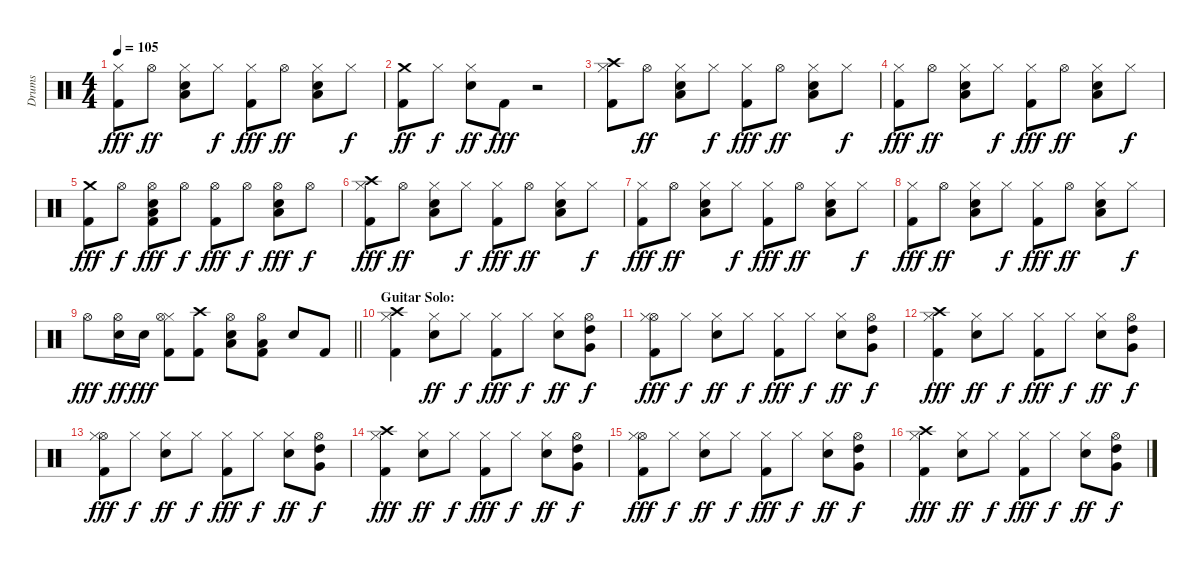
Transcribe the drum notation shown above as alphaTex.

\track ("Drums" "Drums") {instrument percussion}
\staff {score}
\articulation defaults
\ts (4 4)
\tempo 105
\clef neutral
\ks c
("Hi-Hat (closed)" "Kick (hit) 2").8{dy fff} "Hi-Hat (open)".8{dy ff} ("Hi-Hat (closed)" "Low Floor Tom (hit)" "Snare (hit) 2").8 "Hi-Hat (closed)".8{dy f} ("Hi-Hat (closed)" "Kick (hit) 2").8{dy fff} "Hi-Hat (open)".8{dy ff} ("Hi-Hat (closed)" "Low Floor Tom (hit)" "Snare (hit) 2").8 "Hi-Hat (closed)".8{dy f} |
("Crash medium (hit)" "Kick (hit) 2").8{dy ff} "Hi-Hat (closed)".8{dy f} ("Hi-Hat (closed)" "Snare (hit) 2").8{dy ff} "Kick (hit) 2".8{dy fff} r.2 |
("Crash high (hit)" "Hi-Hat (closed)" "Kick (hit) 2").8 "Hi-Hat (open)".8{dy ff} ("Hi-Hat (closed)" "Low Floor Tom (hit)" "Snare (hit) 2").8 "Hi-Hat (closed)".8{dy f} ("Hi-Hat (closed)" "Kick (hit) 2").8{dy fff} "Hi-Hat (open)".8{dy ff} ("Hi-Hat (closed)" "Low Floor Tom (hit)" "Snare (hit) 2").8 "Hi-Hat (closed)".8{dy f} |
("Hi-Hat (closed)" "Kick (hit) 2").8{dy fff} "Hi-Hat (open)".8{dy ff} ("Hi-Hat (closed)" "Low Floor Tom (hit)" "Snare (hit) 2").8 "Hi-Hat (closed)".8{dy f} ("Hi-Hat (closed)" "Kick (hit) 2").8{dy fff} "Hi-Hat (open)".8{dy ff} ("Hi-Hat (closed)" "Low Floor Tom (hit)" "Snare (hit) 2").8 "Hi-Hat (closed)".8{dy f} |
("Crash medium (hit)" "Kick (hit) 2").8{dy fff} "Hi-Hat (open)".8{dy f} ("Hi-Hat (open)" "Low Floor Tom (hit)" "Snare (hit) 2" "Kick (hit) 2").8{dy fff} "Hi-Hat (open)".8{dy f} ("Hi-Hat (open)" "Kick (hit) 2").8{dy fff} "Hi-Hat (open)".8{dy f} ("Hi-Hat (open)" "Low Floor Tom (hit)" "Snare (hit) 2").8{dy fff} "Hi-Hat (open)".8{dy f} |
("Crash high (hit)" "Hi-Hat (closed)" "Kick (hit) 2").8{dy fff} "Hi-Hat (open)".8{dy ff} ("Hi-Hat (closed)" "Low Floor Tom (hit)" "Snare (hit) 2").8 "Hi-Hat (closed)".8{dy f} ("Hi-Hat (closed)" "Kick (hit) 2").8{dy fff} "Hi-Hat (open)".8{dy ff} ("Hi-Hat (closed)" "Low Floor Tom (hit)" "Snare (hit) 2").8 "Hi-Hat (closed)".8{dy f} |
("Hi-Hat (closed)" "Kick (hit) 2").8{dy fff} "Hi-Hat (open)".8{dy ff} ("Hi-Hat (closed)" "Low Floor Tom (hit)" "Snare (hit) 2").8 "Hi-Hat (closed)".8{dy f} ("Hi-Hat (closed)" "Kick (hit) 2").8{dy fff} "Hi-Hat (open)".8{dy ff} ("Hi-Hat (closed)" "Low Floor Tom (hit)" "Snare (hit) 2").8 "Hi-Hat (closed)".8{dy f} |
("Hi-Hat (closed)" "Kick (hit) 2").8{dy fff} "Hi-Hat (open)".8{dy ff} ("Hi-Hat (closed)" "Low Floor Tom (hit)" "Snare (hit) 2").8 "Hi-Hat (closed)".8{dy f} ("Hi-Hat (closed)" "Kick (hit) 2").8{dy fff} "Hi-Hat (open)".8{dy ff} ("Hi-Hat (closed)" "Low Floor Tom (hit)" "Snare (hit) 2").8 "Hi-Hat (closed)".8{dy f} |
\barLineRight lightlight "Hi-Hat (open)".8{dy fff}
("Snare (hit) 2" "Hi-Hat (open)").16{dy ff} "Snare (hit) 2".16{dy fff} ("Hi-Hat (closed)" "Kick (hit) 2" "Hi-Hat (open)").8 ("Crash high (hit)" "Kick (hit) 2").8 ("Hi-Hat (open)" "Low Floor Tom (hit)" "Snare (hit) 2").8 ("Hi-Hat (open)" "Low Floor Tom (hit)" "Kick (hit) 2").8 "Snare (hit) 2".8 "Kick (hit) 2".8 |
\section ("" "Guitar Solo:")
("Crash high (hit)" "Hi-Hat (closed)" "Kick (hit) 2").4 ("Hi-Hat (closed)" "Electric Snare (hit)").8{dy ff} "Hi-Hat (closed)".8{dy f} ("Hi-Hat (closed)" "Kick (hit) 2").8{dy fff} "Hi-Hat (closed)".8{dy f} ("Hi-Hat (closed)" "Electric Snare (hit)").8{dy ff} ("Very Low Tom (hit)" "Hi-Hat (open)" "High Tom (hit)").8{dy f} |
("Hi-Hat (open)" "Hi-Hat (closed)" "Kick (hit) 2").8{dy fff} "Hi-Hat (closed)".8{dy f} ("Hi-Hat (closed)" "Electric Snare (hit)").8{dy ff} "Hi-Hat (closed)".8{dy f} ("Hi-Hat (closed)" "Kick (hit) 2").8{dy fff} "Hi-Hat (closed)".8{dy f} ("Hi-Hat (closed)" "Electric Snare (hit)").8{dy ff} ("Very Low Tom (hit)" "Hi-Hat (open)" "High Tom (hit)").8{dy f} |
("Crash high (hit)" "Hi-Hat (closed)" "Kick (hit) 2").4{dy fff} ("Hi-Hat (closed)" "Electric Snare (hit)").8{dy ff} "Hi-Hat (closed)".8{dy f} ("Hi-Hat (closed)" "Kick (hit) 2").8{dy fff} "Hi-Hat (closed)".8{dy f} ("Hi-Hat (closed)" "Electric Snare (hit)").8{dy ff} ("Very Low Tom (hit)" "Hi-Hat (open)" "High Tom (hit)").8{dy f} |
("Hi-Hat (open)" "Hi-Hat (closed)" "Kick (hit) 2").8{dy fff} "Hi-Hat (closed)".8{dy f} ("Hi-Hat (closed)" "Electric Snare (hit)").8{dy ff} "Hi-Hat (closed)".8{dy f} ("Hi-Hat (closed)" "Kick (hit) 2").8{dy fff} "Hi-Hat (closed)".8{dy f} ("Hi-Hat (closed)" "Electric Snare (hit)").8{dy ff} ("Very Low Tom (hit)" "Hi-Hat (open)" "High Tom (hit)").8{dy f} |
("Crash high (hit)" "Hi-Hat (closed)" "Kick (hit) 2").4{dy fff} ("Hi-Hat (closed)" "Electric Snare (hit)").8{dy ff} "Hi-Hat (closed)".8{dy f} ("Hi-Hat (closed)" "Kick (hit) 2").8{dy fff} "Hi-Hat (closed)".8{dy f} ("Hi-Hat (closed)" "Electric Snare (hit)").8{dy ff} ("Very Low Tom (hit)" "Hi-Hat (open)" "High Tom (hit)").8{dy f} |
("Hi-Hat (open)" "Hi-Hat (closed)" "Kick (hit) 2").8{dy fff} "Hi-Hat (closed)".8{dy f} ("Hi-Hat (closed)" "Electric Snare (hit)").8{dy ff} "Hi-Hat (closed)".8{dy f} ("Hi-Hat (closed)" "Kick (hit) 2").8{dy fff} "Hi-Hat (closed)".8{dy f} ("Hi-Hat (closed)" "Electric Snare (hit)").8{dy ff} ("Very Low Tom (hit)" "Hi-Hat (open)" "High Tom (hit)").8{dy f} |
("Crash high (hit)" "Hi-Hat (closed)" "Kick (hit) 2").4{dy fff} ("Hi-Hat (closed)" "Electric Snare (hit)").8{dy ff} "Hi-Hat (closed)".8{dy f} ("Hi-Hat (closed)" "Kick (hit) 2").8{dy fff} "Hi-Hat (closed)".8{dy f} ("Hi-Hat (closed)" "Electric Snare (hit)").8{dy ff} ("Very Low Tom (hit)" "Hi-Hat (open)" "High Tom (hit)").8{dy f}
